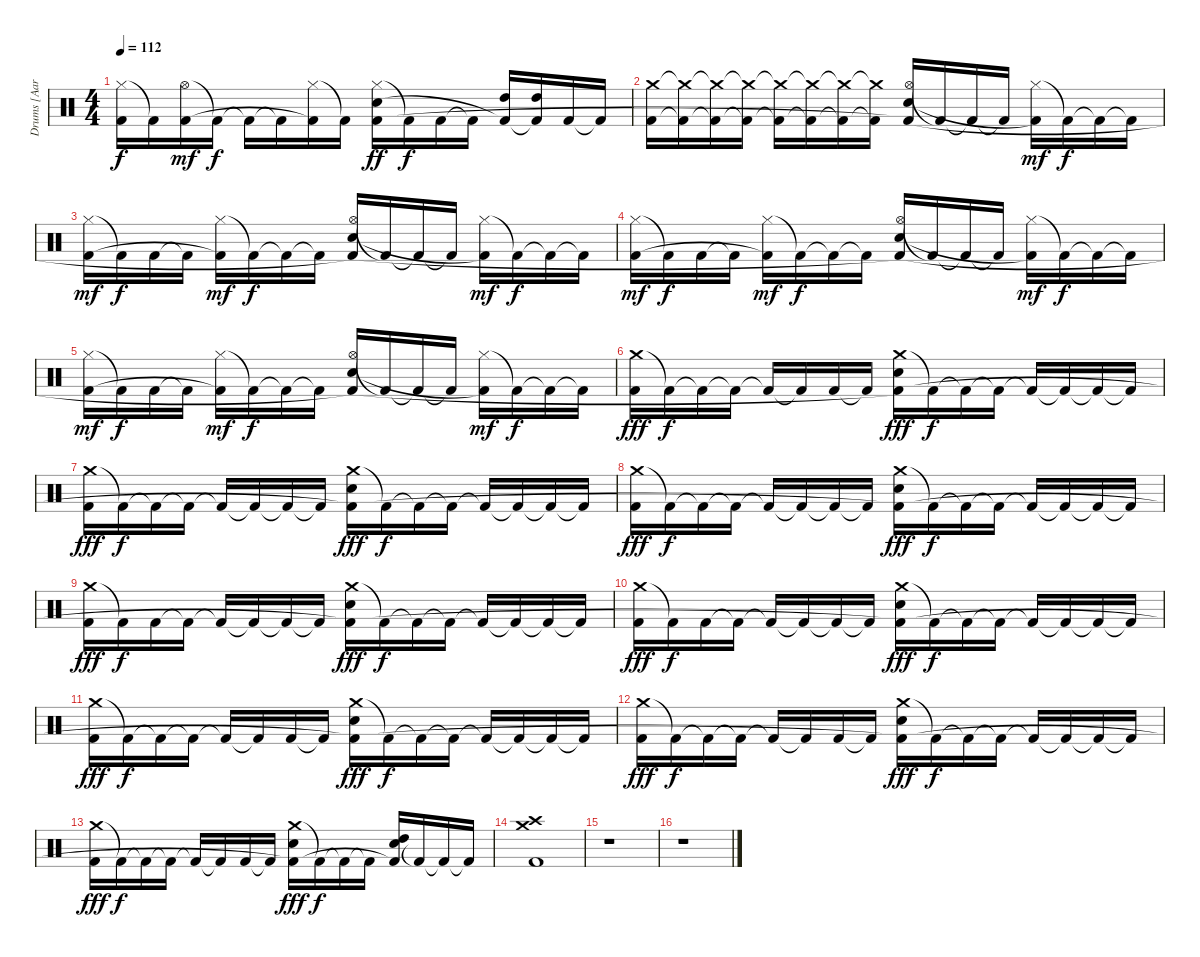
\track ("Drums [Aaron Harris]" "Drums [Aar") {instrument percussion}
\staff {score}
\articulation defaults
\ts (4 4)
\tempo 112
\clef neutral
\ks c
("Hi-Hat (closed)" "Kick (hit) 2").16{dy f} "Kick (hit) 2"{t}.16 ("Hi-Hat (open)" "Kick (hit) 2").16{dy mf} "Kick (hit) 2"{t}.16{dy f} "Kick (hit) 2"{t}.16 "Kick (hit) 2"{t}.16 ("Hi-Hat (closed)" "Kick (hit) 2"{t}).16 "Kick (hit) 2"{t}.16 ("Hi-Hat (closed)" "Electric Snare (hit)" "Kick (hit) 2"{t}).16{dy ff} "Kick (hit) 2"{t}.16{dy f} "Kick (hit) 2".16 "Kick (hit) 2"{t}.16 ("High Tom (hit)" "Kick (hit) 2"{t}).16 ("High Tom (hit)" "Kick (hit) 2"{t}).16 "Kick (hit) 2".16 "Kick (hit) 2"{t}.16 |
("Crash medium (hit)" "Kick (hit) 2").16 ("Crash medium (hit)"{t} "Kick (hit) 2"{t}).16 ("Crash medium (hit)"{t} "Kick (hit) 2"{t}).16 ("Crash medium (hit)"{t} "Kick (hit) 2"{t}).16 ("Crash medium (hit)"{t} "Kick (hit) 2"{t}).16 ("Crash medium (hit)"{t} "Kick (hit) 2"{t}).16 ("Crash medium (hit)"{t} "Kick (hit) 2"{t}).16 ("Crash medium (hit)"{t} "Kick (hit) 2"{t}).16 ("Hi-Hat (open)" "Electric Snare (hit)" "Kick (hit) 2"{t}).16 "Kick (hit) 2"{t}.16 "Kick (hit) 2"{t}.16 "Kick (hit) 2"{t}.16 ("Hi-Hat (closed)" "Kick (hit) 2"{t}).16{dy mf} "Kick (hit) 2"{t}.16{dy f} "Kick (hit) 2"{t}.16 "Kick (hit) 2"{t}.16 |
("Hi-Hat (closed)" "Kick (hit) 2").16{dy mf} "Kick (hit) 2"{t}.16{dy f} "Kick (hit) 2".16 "Kick (hit) 2"{t}.16 ("Hi-Hat (closed)" "Kick (hit) 2"{t}).16{dy mf} "Kick (hit) 2"{t}.16{dy f} "Kick (hit) 2"{t}.16 "Kick (hit) 2"{t}.16 ("Hi-Hat (open)" "Electric Snare (hit)" "Kick (hit) 2"{t}).16 "Kick (hit) 2"{t}.16 "Kick (hit) 2"{t}.16 "Kick (hit) 2"{t}.16 ("Hi-Hat (closed)" "Kick (hit) 2"{t}).16{dy mf} "Kick (hit) 2"{t}.16{dy f} "Kick (hit) 2"{t}.16 "Kick (hit) 2"{t}.16 |
("Hi-Hat (closed)" "Kick (hit) 2").16{dy mf} "Kick (hit) 2"{t}.16{dy f} "Kick (hit) 2".16 "Kick (hit) 2"{t}.16 ("Hi-Hat (closed)" "Kick (hit) 2"{t}).16{dy mf} "Kick (hit) 2"{t}.16{dy f} "Kick (hit) 2"{t}.16 "Kick (hit) 2"{t}.16 ("Hi-Hat (open)" "Electric Snare (hit)" "Kick (hit) 2"{t}).16 "Kick (hit) 2"{t}.16 "Kick (hit) 2"{t}.16 "Kick (hit) 2"{t}.16 ("Hi-Hat (closed)" "Kick (hit) 2"{t}).16{dy mf} "Kick (hit) 2"{t}.16{dy f} "Kick (hit) 2"{t}.16 "Kick (hit) 2"{t}.16 |
("Hi-Hat (closed)" "Kick (hit) 2").16{dy mf} "Kick (hit) 2"{t}.16{dy f} "Kick (hit) 2".16 "Kick (hit) 2"{t}.16 ("Hi-Hat (closed)" "Kick (hit) 2"{t}).16{dy mf} "Kick (hit) 2"{t}.16{dy f} "Kick (hit) 2"{t}.16 "Kick (hit) 2"{t}.16 ("Hi-Hat (open)" "Electric Snare (hit)" "Kick (hit) 2"{t}).16 "Kick (hit) 2"{t}.16 "Kick (hit) 2"{t}.16 "Kick (hit) 2"{t}.16 ("Hi-Hat (closed)" "Kick (hit) 2"{t}).16{dy mf} "Kick (hit) 2"{t}.16{dy f} "Kick (hit) 2"{t}.16 "Kick (hit) 2"{t}.16 |
("Crash medium (hit)" "Kick (hit) 2").16{dy fff} "Kick (hit) 2"{t}.16{dy f} "Kick (hit) 2"{t}.16 "Kick (hit) 2"{t}.16 "Kick (hit) 2"{t}.16 "Kick (hit) 2"{t}.16 "Kick (hit) 2".16 "Kick (hit) 2"{t}.16 ("Crash medium (hit)" "Electric Snare (hit)" "Kick (hit) 2"{t}).16{dy fff} "Kick (hit) 2"{t}.16{dy f} "Kick (hit) 2"{t}.16 "Kick (hit) 2"{t}.16 "Kick (hit) 2"{t}.16 "Kick (hit) 2"{t}.16 "Kick (hit) 2"{t}.16 "Kick (hit) 2"{t}.16 |
("Crash medium (hit)" "Kick (hit) 2").16{dy fff} "Kick (hit) 2"{t}.16{dy f} "Kick (hit) 2"{t}.16 "Kick (hit) 2"{t}.16 "Kick (hit) 2"{t}.16 "Kick (hit) 2"{t}.16 "Kick (hit) 2"{t}.16 "Kick (hit) 2"{t}.16 ("Crash medium (hit)" "Electric Snare (hit)" "Kick (hit) 2"{t}).16{dy fff} "Kick (hit) 2"{t}.16{dy f} "Kick (hit) 2"{t}.16 "Kick (hit) 2"{t}.16 "Kick (hit) 2"{t}.16 "Kick (hit) 2"{t}.16 "Kick (hit) 2"{t}.16 "Kick (hit) 2"{t}.16 |
("Crash medium (hit)" "Kick (hit) 2").16{dy fff} "Kick (hit) 2"{t}.16{dy f} "Kick (hit) 2"{t}.16 "Kick (hit) 2"{t}.16 "Kick (hit) 2"{t}.16 "Kick (hit) 2"{t}.16 "Kick (hit) 2"{t}.16 "Kick (hit) 2"{t}.16 ("Crash medium (hit)" "Electric Snare (hit)" "Kick (hit) 2"{t}).16{dy fff} "Kick (hit) 2"{t}.16{dy f} "Kick (hit) 2"{t}.16 "Kick (hit) 2"{t}.16 "Kick (hit) 2"{t}.16 "Kick (hit) 2"{t}.16 "Kick (hit) 2"{t}.16 "Kick (hit) 2"{t}.16 |
("Crash medium (hit)" "Kick (hit) 2").16{dy fff} "Kick (hit) 2"{t}.16{dy f} "Kick (hit) 2".16 "Kick (hit) 2"{t}.16 "Kick (hit) 2"{t}.16 "Kick (hit) 2"{t}.16 "Kick (hit) 2"{t}.16 "Kick (hit) 2"{t}.16 ("Crash medium (hit)" "Electric Snare (hit)" "Kick (hit) 2"{t}).16{dy fff} "Kick (hit) 2"{t}.16{dy f} "Kick (hit) 2"{t}.16 "Kick (hit) 2"{t}.16 "Kick (hit) 2"{t}.16 "Kick (hit) 2"{t}.16 "Kick (hit) 2"{t}.16 "Kick (hit) 2"{t}.16 |
("Crash medium (hit)" "Kick (hit) 2").16{dy fff} "Kick (hit) 2"{t}.16{dy f} "Kick (hit) 2".16 "Kick (hit) 2"{t}.16 "Kick (hit) 2"{t}.16 "Kick (hit) 2"{t}.16 "Kick (hit) 2"{t}.16 "Kick (hit) 2"{t}.16 ("Crash medium (hit)" "Electric Snare (hit)" "Kick (hit) 2"{t}).16{dy fff} "Kick (hit) 2"{t}.16{dy f} "Kick (hit) 2"{t}.16 "Kick (hit) 2"{t}.16 "Kick (hit) 2"{t}.16 "Kick (hit) 2"{t}.16 "Kick (hit) 2"{t}.16 "Kick (hit) 2"{t}.16 |
("Crash medium (hit)" "Kick (hit) 2").16{dy fff} "Kick (hit) 2"{t}.16{dy f} "Kick (hit) 2"{t}.16 "Kick (hit) 2"{t}.16 "Kick (hit) 2"{t}.16 "Kick (hit) 2"{t}.16 "Kick (hit) 2".16 "Kick (hit) 2"{t}.16 ("Crash medium (hit)" "Electric Snare (hit)" "Kick (hit) 2"{t}).16{dy fff} "Kick (hit) 2"{t}.16{dy f} "Kick (hit) 2"{t}.16 "Kick (hit) 2"{t}.16 "Kick (hit) 2"{t}.16 "Kick (hit) 2"{t}.16 "Kick (hit) 2"{t}.16 "Kick (hit) 2"{t}.16 |
("Crash medium (hit)" "Kick (hit) 2").16{dy fff} "Kick (hit) 2"{t}.16{dy f} "Kick (hit) 2"{t}.16 "Kick (hit) 2"{t}.16 "Kick (hit) 2"{t}.16 "Kick (hit) 2"{t}.16 "Kick (hit) 2".16 "Kick (hit) 2"{t}.16 ("Crash medium (hit)" "Electric Snare (hit)" "Kick (hit) 2"{t}).16{dy fff} "Kick (hit) 2"{t}.16{dy f} "Kick (hit) 2"{t}.16 "Kick (hit) 2"{t}.16 "Kick (hit) 2"{t}.16 "Kick (hit) 2"{t}.16 "Kick (hit) 2"{t}.16 "Kick (hit) 2"{t}.16 |
("Crash medium (hit)" "Kick (hit) 2").16{dy fff} "Kick (hit) 2"{t}.16{dy f} "Kick (hit) 2"{t}.16 "Kick (hit) 2"{t}.16 "Kick (hit) 2"{t}.16 "Kick (hit) 2"{t}.16 "Kick (hit) 2".16 "Kick (hit) 2"{t}.16 ("Crash medium (hit)" "Electric Snare (hit)" "Kick (hit) 2"{t}).16{dy fff} "Kick (hit) 2"{t}.16{dy f} "Kick (hit) 2"{t}.16 "Kick (hit) 2"{t}.16 ("High Tom (hit)" "Electric Snare (hit)" "Kick (hit) 2"{t}).16 "Kick (hit) 2"{t}.16 "Kick (hit) 2"{t}.16 "Kick (hit) 2"{t}.16 |
("Crash medium (hit)" "Crash high (hit)" "Kick (hit) 2").1 |
r.1 |
r.1
